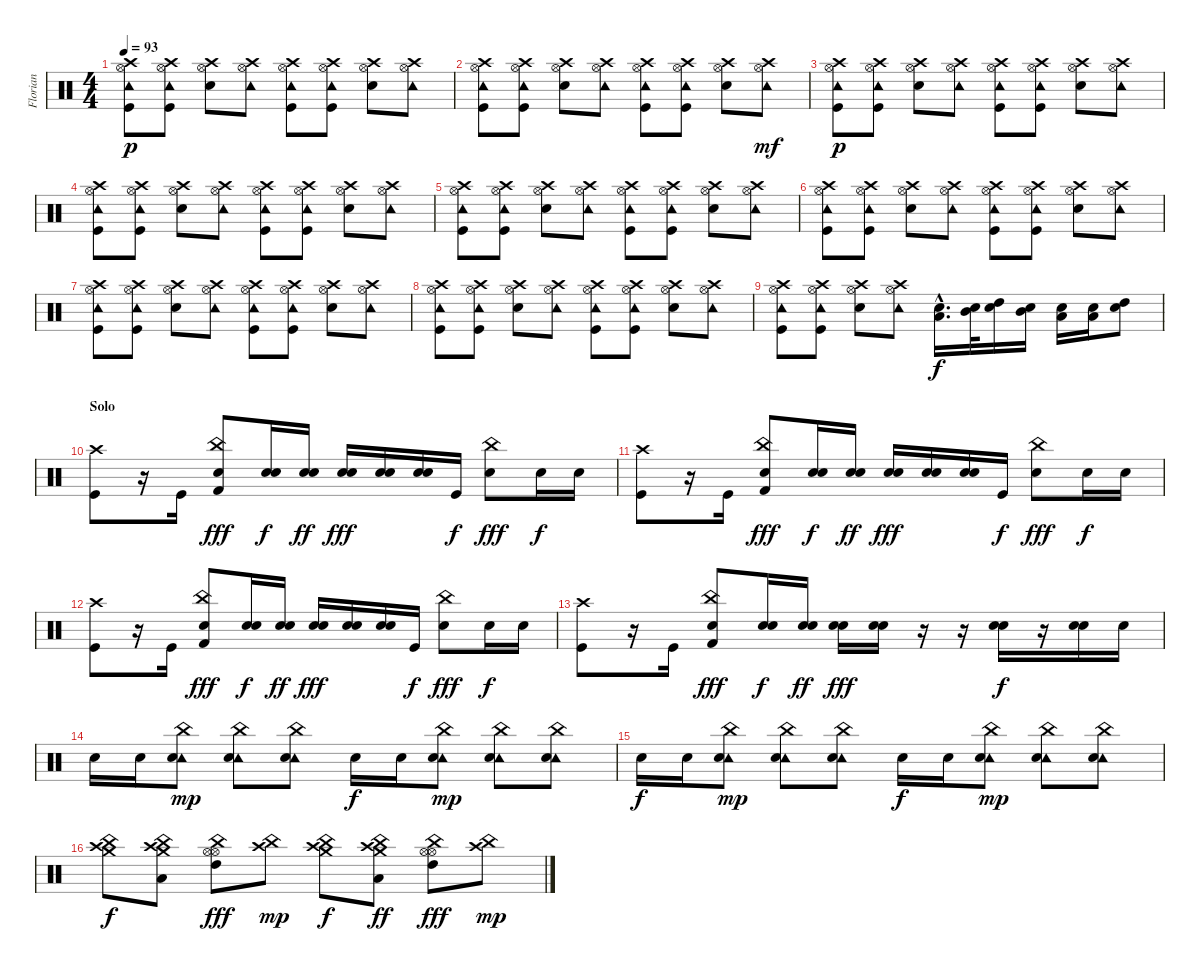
\track ("Florian" "Florian") {instrument percussion}
\staff {score}
\articulation defaults
\ts (4 4)
\tempo 93
\clef neutral
\ks c
("Crash high (hit)" "Hi-Hat (open)" "Tambourine (hit)" "Kick (hit)").8{dy p} ("Crash high (hit)" "Hi-Hat (open)" "Tambourine (hit)" "Kick (hit)").8 ("Crash high (hit)" "Hi-Hat (open)" "Snare (hit) 2").8 ("Crash high (hit)" "Hi-Hat (open)" "Tambourine (hit)").8 ("Crash high (hit)" "Hi-Hat (open)" "Tambourine (hit)" "Kick (hit)").8 ("Crash high (hit)" "Hi-Hat (open)" "Tambourine (hit)" "Kick (hit)").8 ("Crash high (hit)" "Hi-Hat (open)" "Snare (hit) 2").8 ("Crash high (hit)" "Hi-Hat (open)" "Tambourine (hit)").8 |
("Crash high (hit)" "Hi-Hat (open)" "Tambourine (hit)" "Kick (hit)").8{volume 16} ("Crash high (hit)" "Hi-Hat (open)" "Tambourine (hit)" "Kick (hit)").8 ("Crash high (hit)" "Hi-Hat (open)" "Snare (hit) 2").8 ("Crash high (hit)" "Hi-Hat (open)" "Tambourine (hit)").8 ("Crash high (hit)" "Hi-Hat (open)" "Tambourine (hit)" "Kick (hit)").8 ("Crash high (hit)" "Hi-Hat (open)" "Tambourine (hit)" "Kick (hit)").8 ("Crash high (hit)" "Hi-Hat (open)" "Snare (hit) 2").8 ("Crash high (hit)" "Hi-Hat (open)" "Tambourine (hit)").8{dy mf} |
("Crash high (hit)" "Hi-Hat (open)" "Tambourine (hit)" "Kick (hit)").8{dy p} ("Crash high (hit)" "Hi-Hat (open)" "Tambourine (hit)" "Kick (hit)").8 ("Crash high (hit)" "Hi-Hat (open)" "Snare (hit) 2").8 ("Crash high (hit)" "Hi-Hat (open)" "Tambourine (hit)").8 ("Crash high (hit)" "Hi-Hat (open)" "Tambourine (hit)" "Kick (hit)").8 ("Crash high (hit)" "Hi-Hat (open)" "Tambourine (hit)" "Kick (hit)").8 ("Crash high (hit)" "Hi-Hat (open)" "Snare (hit) 2").8 ("Crash high (hit)" "Hi-Hat (open)" "Tambourine (hit)").8 |
("Crash high (hit)" "Hi-Hat (open)" "Tambourine (hit)" "Kick (hit)").8 ("Crash high (hit)" "Hi-Hat (open)" "Tambourine (hit)" "Kick (hit)").8 ("Crash high (hit)" "Hi-Hat (open)" "Snare (hit) 2").8 ("Crash high (hit)" "Hi-Hat (open)" "Tambourine (hit)").8 ("Crash high (hit)" "Hi-Hat (open)" "Tambourine (hit)" "Kick (hit)").8 ("Crash high (hit)" "Hi-Hat (open)" "Tambourine (hit)" "Kick (hit)").8 ("Crash high (hit)" "Hi-Hat (open)" "Snare (hit) 2").8 ("Crash high (hit)" "Hi-Hat (open)" "Tambourine (hit)").8 |
("Crash high (hit)" "Hi-Hat (open)" "Tambourine (hit)" "Kick (hit)").8 ("Crash high (hit)" "Hi-Hat (open)" "Tambourine (hit)" "Kick (hit)").8 ("Crash high (hit)" "Hi-Hat (open)" "Snare (hit) 2").8 ("Crash high (hit)" "Hi-Hat (open)" "Tambourine (hit)").8 ("Crash high (hit)" "Hi-Hat (open)" "Tambourine (hit)" "Kick (hit)").8 ("Crash high (hit)" "Hi-Hat (open)" "Tambourine (hit)" "Kick (hit)").8 ("Crash high (hit)" "Hi-Hat (open)" "Snare (hit) 2").8 ("Crash high (hit)" "Hi-Hat (open)" "Tambourine (hit)").8 |
("Crash high (hit)" "Hi-Hat (open)" "Tambourine (hit)" "Kick (hit)").8 ("Crash high (hit)" "Hi-Hat (open)" "Tambourine (hit)" "Kick (hit)").8 ("Crash high (hit)" "Hi-Hat (open)" "Snare (hit) 2").8 ("Crash high (hit)" "Hi-Hat (open)" "Tambourine (hit)").8 ("Crash high (hit)" "Hi-Hat (open)" "Tambourine (hit)" "Kick (hit)").8 ("Crash high (hit)" "Hi-Hat (open)" "Tambourine (hit)" "Kick (hit)").8 ("Crash high (hit)" "Hi-Hat (open)" "Snare (hit) 2").8 ("Crash high (hit)" "Hi-Hat (open)" "Tambourine (hit)").8 |
("Crash high (hit)" "Hi-Hat (open)" "Tambourine (hit)" "Kick (hit)").8 ("Crash high (hit)" "Hi-Hat (open)" "Tambourine (hit)" "Kick (hit)").8 ("Crash high (hit)" "Hi-Hat (open)" "Snare (hit) 2").8 ("Crash high (hit)" "Hi-Hat (open)" "Tambourine (hit)").8 ("Crash high (hit)" "Hi-Hat (open)" "Tambourine (hit)" "Kick (hit)").8 ("Crash high (hit)" "Hi-Hat (open)" "Tambourine (hit)" "Kick (hit)").8 ("Crash high (hit)" "Hi-Hat (open)" "Snare (hit) 2").8 ("Crash high (hit)" "Hi-Hat (open)" "Tambourine (hit)").8 |
("Crash high (hit)" "Hi-Hat (open)" "Tambourine (hit)" "Kick (hit)").8 ("Crash high (hit)" "Hi-Hat (open)" "Tambourine (hit)" "Kick (hit)").8 ("Crash high (hit)" "Hi-Hat (open)" "Snare (hit) 2").8 ("Crash high (hit)" "Hi-Hat (open)" "Tambourine (hit)").8 ("Crash high (hit)" "Hi-Hat (open)" "Tambourine (hit)" "Kick (hit)").8 ("Crash high (hit)" "Hi-Hat (open)" "Tambourine (hit)" "Kick (hit)").8 ("Crash high (hit)" "Hi-Hat (open)" "Snare (hit) 2").8 ("Crash high (hit)" "Hi-Hat (open)" "Tambourine (hit)").8 |
("Crash high (hit)" "Hi-Hat (open)" "Tambourine (hit)" "Kick (hit)").8 ("Crash high (hit)" "Hi-Hat (open)" "Tambourine (hit)" "Kick (hit)").8 ("Crash high (hit)" "Hi-Hat (open)" "Snare (hit) 2").8 ("Crash high (hit)" "Hi-Hat (open)" "Tambourine (hit)").8 ("Low Tom (hit)"{hac} "Snare (hit) 2"{hac}).16{d dy f} ("Mid Tom (hit)" "Snare (hit) 2").32 ("High Tom (hit)" "Snare (hit) 2").16 ("Mid Tom (hit)" "Snare (hit) 2").16 ("Low Tom (hit)" "Snare (hit) 2").16 ("Low Tom (hit)" "Snare (hit) 2").16 ("High Tom (hit)" "Snare (hit) 2").8 |
\section ("" "Solo")
("Crash high (hit)" "Kick (hit)").8 r.16 "Kick (hit)".16 ("China (hit)" "Snare (hit) 2" "Kick (hit) 2").8{dy fff} ("Snare (hit) 2" "Snare (hit) 2").16{dy f} ("Electric Snare (hit)" "Electric Snare (hit)").16{dy ff} ("Snare (hit) 2" "Snare (hit) 2").16{dy fff} ("Electric Snare (hit)" "Electric Snare (hit)").16 ("Snare (hit) 2" "Snare (hit) 2").16 "Kick (hit)".16{dy f} ("China (hit)" "Snare (hit) 2").8{dy fff} "Snare (hit) 2".16{dy f} "Electric Snare (hit)".16 |
("Crash high (hit)" "Kick (hit)").8 r.16 "Kick (hit)".16 ("China (hit)" "Snare (hit) 2" "Kick (hit) 2").8{dy fff} ("Snare (hit) 2" "Snare (hit) 2").16{dy f} ("Electric Snare (hit)" "Electric Snare (hit)").16{dy ff} ("Snare (hit) 2" "Snare (hit) 2").16{dy fff} ("Electric Snare (hit)" "Electric Snare (hit)").16 ("Snare (hit) 2" "Snare (hit) 2").16 "Kick (hit)".16{dy f} ("China (hit)" "Snare (hit) 2").8{dy fff} "Snare (hit) 2".16{dy f} "Electric Snare (hit)".16 |
("Crash high (hit)" "Kick (hit)").8 r.16 "Kick (hit)".16 ("China (hit)" "Snare (hit) 2" "Kick (hit) 2").8{dy fff} ("Snare (hit) 2" "Snare (hit) 2").16{dy f} ("Electric Snare (hit)" "Electric Snare (hit)").16{dy ff} ("Snare (hit) 2" "Snare (hit) 2").16{dy fff} ("Electric Snare (hit)" "Electric Snare (hit)").16 ("Snare (hit) 2" "Snare (hit) 2").16 "Kick (hit)".16{dy f} ("China (hit)" "Snare (hit) 2").8{dy fff} "Snare (hit) 2".16{dy f} "Electric Snare (hit)".16 |
("Crash high (hit)" "Kick (hit)").8 r.16 "Kick (hit)".16 ("China (hit)" "Snare (hit) 2" "Kick (hit) 2").8{dy fff} ("Snare (hit) 2" "Snare (hit) 2").16{dy f} ("Electric Snare (hit)" "Electric Snare (hit)").16{dy ff} ("Snare (hit) 2" "Snare (hit) 2").16{dy fff} ("Electric Snare (hit)" "Electric Snare (hit)").16 r.16 r.16 ("Snare (hit) 2" "Snare (hit) 2").16{dy f} r.16 ("Snare (hit) 2" "Snare (hit) 2").16 "Electric Snare (hit)".16 |
"Electric Snare (hit)".16 "Snare (hit) 2".16 ("Tambourine (hit)" "China (hit)" "Electric Snare (hit)").8{dy mp} ("Tambourine (hit)" "China (hit)" "Electric Snare (hit)").8 ("Tambourine (hit)" "China (hit)" "Electric Snare (hit)").8 "Electric Snare (hit)".16{dy f} "Snare (hit) 2".16 ("Tambourine (hit)" "China (hit)" "Electric Snare (hit)").8{dy mp} ("Tambourine (hit)" "China (hit)" "Electric Snare (hit)").8 ("Tambourine (hit)" "China (hit)" "Electric Snare (hit)").8 |
"Electric Snare (hit)".16{dy f} "Snare (hit) 2".16 ("Tambourine (hit)" "China (hit)" "Electric Snare (hit)").8{dy mp} ("Tambourine (hit)" "China (hit)" "Electric Snare (hit)").8 ("Tambourine (hit)" "China (hit)" "Electric Snare (hit)").8 "Electric Snare (hit)".16{dy f} "Snare (hit) 2".16 ("Tambourine (hit)" "China (hit)" "Electric Snare (hit)").8{dy mp} ("Tambourine (hit)" "China (hit)" "Electric Snare (hit)").8 ("Tambourine (hit)" "China (hit)" "Electric Snare (hit)").8 |
("Crash high (hit)" "Crash medium (hit)" "China (hit)").8{dy f} ("Crash high (hit)" "Crash medium (hit)" "Low Tom (hit)" "China (hit)").8 ("Hi-Hat (open)" "Hi-Hat (open)" "High Tom (hit)" "China (hit)").8{dy fff} ("Crash high (hit)" "China (hit)").8{dy mp} ("Crash high (hit)" "Crash medium (hit)" "China (hit)").8{dy f} ("Crash high (hit)" "Crash medium (hit)" "Low Tom (hit)" "China (hit)").8{dy ff} ("Hi-Hat (open)" "Hi-Hat (open)" "High Tom (hit)" "China (hit)").8{dy fff} ("Crash high (hit)" "China (hit)").8{dy mp}
